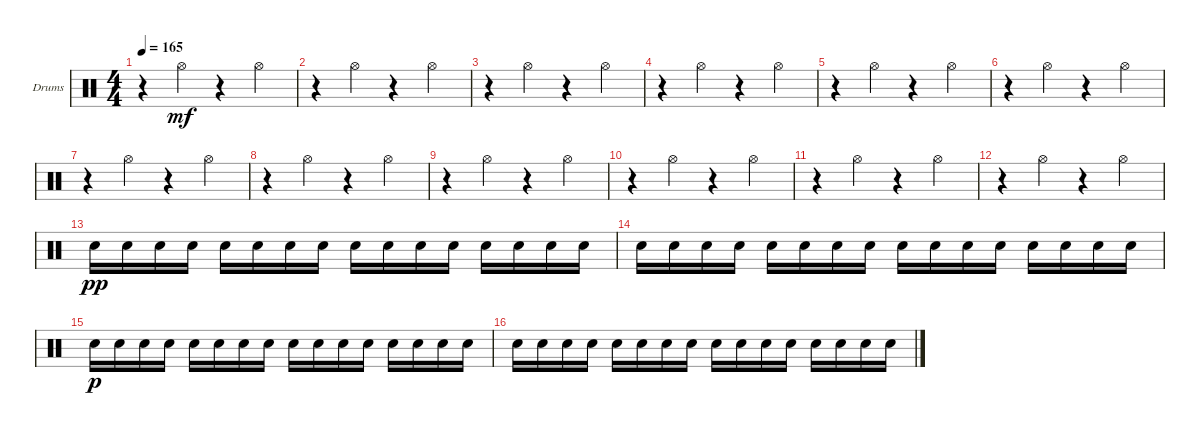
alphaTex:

\defaultSystemsLayout 4
\bracketExtendMode groupsimilarinstruments
\firstSystemTrackNameOrientation horizontal
\otherSystemsTrackNameOrientation horizontal
\track ("Drumkit" "Drums") {instrument percussion}
\staff {score}
\articulation defaults
\ts (4 4)
\tempo 165
\clef neutral
\ks c
r.4{dy mf} "Hi-Hat (open)".4 r.4 "Hi-Hat (open)".4 |
r.4 "Hi-Hat (open)".4 r.4 "Hi-Hat (open)".4 |
r.4 "Hi-Hat (open)".4 r.4 "Hi-Hat (open)".4 |
r.4 "Hi-Hat (open)".4 r.4 "Hi-Hat (open)".4 |
r.4 "Hi-Hat (open)".4 r.4 "Hi-Hat (open)".4 |
r.4 "Hi-Hat (open)".4 r.4 "Hi-Hat (open)".4 |
r.4 "Hi-Hat (open)".4 r.4 "Hi-Hat (open)".4 |
r.4 "Hi-Hat (open)".4 r.4 "Hi-Hat (open)".4 |
r.4 "Hi-Hat (open)".4 r.4 "Hi-Hat (open)".4 |
r.4 "Hi-Hat (open)".4 r.4 "Hi-Hat (open)".4 |
r.4 "Hi-Hat (open)".4 r.4 "Hi-Hat (open)".4 |
r.4 "Hi-Hat (open)".4 r.4 "Hi-Hat (open)".4 |
"Snare (hit) 2".16{dy pp} "Snare (hit) 2".16 "Snare (hit) 2".16 "Snare (hit) 2".16 "Snare (hit) 2".16 "Snare (hit) 2".16 "Snare (hit) 2".16 "Snare (hit) 2".16 "Snare (hit) 2".16 "Snare (hit) 2".16 "Snare (hit) 2".16 "Snare (hit) 2".16 "Snare (hit) 2".16 "Snare (hit) 2".16 "Snare (hit) 2".16 "Snare (hit) 2".16 |
"Snare (hit) 2".16 "Snare (hit) 2".16 "Snare (hit) 2".16 "Snare (hit) 2".16 "Snare (hit) 2".16 "Snare (hit) 2".16 "Snare (hit) 2".16 "Snare (hit) 2".16 "Snare (hit) 2".16 "Snare (hit) 2".16 "Snare (hit) 2".16 "Snare (hit) 2".16 "Snare (hit) 2".16 "Snare (hit) 2".16 "Snare (hit) 2".16 "Snare (hit) 2".16 |
"Snare (hit) 2".16{dy p} "Snare (hit) 2".16 "Snare (hit) 2".16 "Snare (hit) 2".16 "Snare (hit) 2".16 "Snare (hit) 2".16 "Snare (hit) 2".16 "Snare (hit) 2".16 "Snare (hit) 2".16 "Snare (hit) 2".16 "Snare (hit) 2".16 "Snare (hit) 2".16 "Snare (hit) 2".16 "Snare (hit) 2".16 "Snare (hit) 2".16 "Snare (hit) 2".16 |
"Snare (hit) 2".16 "Snare (hit) 2".16 "Snare (hit) 2".16 "Snare (hit) 2".16 "Snare (hit) 2".16 "Snare (hit) 2".16 "Snare (hit) 2".16 "Snare (hit) 2".16 "Snare (hit) 2".16 "Snare (hit) 2".16 "Snare (hit) 2".16 "Snare (hit) 2".16 "Snare (hit) 2".16 "Snare (hit) 2".16 "Snare (hit) 2".16 "Snare (hit) 2".16
